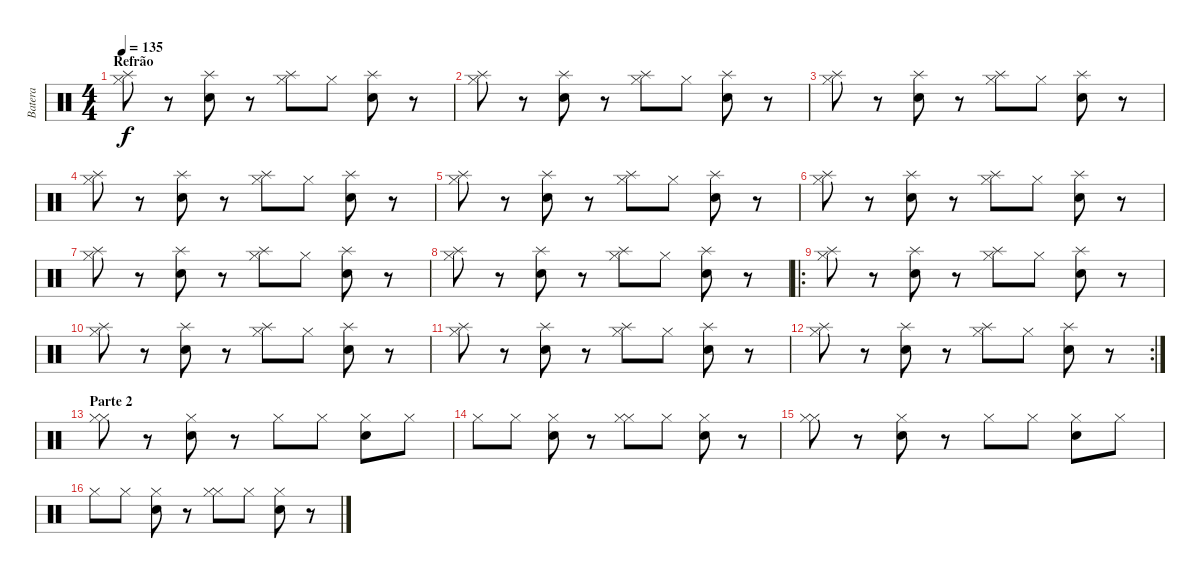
\track ("Batera" "Batera") {instrument percussion}
\staff {score}
\articulation defaults
\ts (4 4)
\section ("" "Refrão")
\tempo 135
\clef neutral
\ks c
("Splash (hit)" "Hi-Hat (closed)").8{dy f} r.8 ("Splash (hit)" "Electric Snare (hit)").8 r.8 ("Splash (hit)" "Hi-Hat (closed)").8 "Hi-Hat (closed)".8 ("Splash (hit)" "Electric Snare (hit)").8 r.8 |
("Splash (hit)" "Hi-Hat (closed)").8 r.8 ("Splash (hit)" "Electric Snare (hit)").8 r.8 ("Splash (hit)" "Hi-Hat (closed)").8 "Hi-Hat (closed)".8 ("Splash (hit)" "Electric Snare (hit)").8 r.8 |
("Splash (hit)" "Hi-Hat (closed)").8 r.8 ("Splash (hit)" "Electric Snare (hit)").8 r.8 ("Splash (hit)" "Hi-Hat (closed)").8 "Hi-Hat (closed)".8 ("Splash (hit)" "Electric Snare (hit)").8 r.8 |
("Splash (hit)" "Hi-Hat (closed)").8 r.8 ("Splash (hit)" "Electric Snare (hit)").8 r.8 ("Splash (hit)" "Hi-Hat (closed)").8 "Hi-Hat (closed)".8 ("Splash (hit)" "Electric Snare (hit)").8 r.8 |
("Splash (hit)" "Hi-Hat (closed)").8 r.8 ("Splash (hit)" "Electric Snare (hit)").8 r.8 ("Splash (hit)" "Hi-Hat (closed)").8 "Hi-Hat (closed)".8 ("Splash (hit)" "Electric Snare (hit)").8 r.8 |
("Splash (hit)" "Hi-Hat (closed)").8 r.8 ("Splash (hit)" "Electric Snare (hit)").8 r.8 ("Splash (hit)" "Hi-Hat (closed)").8 "Hi-Hat (closed)".8 ("Splash (hit)" "Electric Snare (hit)").8 r.8 |
("Splash (hit)" "Hi-Hat (closed)").8 r.8 ("Splash (hit)" "Electric Snare (hit)").8 r.8 ("Splash (hit)" "Hi-Hat (closed)").8 "Hi-Hat (closed)".8 ("Splash (hit)" "Electric Snare (hit)").8 r.8 |
("Splash (hit)" "Hi-Hat (closed)").8 r.8 ("Splash (hit)" "Electric Snare (hit)").8 r.8 ("Splash (hit)" "Hi-Hat (closed)").8 "Hi-Hat (closed)".8 ("Splash (hit)" "Electric Snare (hit)").8 r.8 |
\ro
("Splash (hit)" "Hi-Hat (closed)").8 r.8 ("Splash (hit)" "Electric Snare (hit)").8 r.8 ("Splash (hit)" "Hi-Hat (closed)").8 "Hi-Hat (closed)".8 ("Splash (hit)" "Electric Snare (hit)").8 r.8 |
("Splash (hit)" "Hi-Hat (closed)").8 r.8 ("Splash (hit)" "Electric Snare (hit)").8 r.8 ("Splash (hit)" "Hi-Hat (closed)").8 "Hi-Hat (closed)".8 ("Splash (hit)" "Electric Snare (hit)").8 r.8 |
("Splash (hit)" "Hi-Hat (closed)").8 r.8 ("Splash (hit)" "Electric Snare (hit)").8 r.8 ("Splash (hit)" "Hi-Hat (closed)").8 "Hi-Hat (closed)".8 ("Splash (hit)" "Electric Snare (hit)").8 r.8 |
\rc 2
("Splash (hit)" "Hi-Hat (closed)").8 r.8 ("Splash (hit)" "Electric Snare (hit)").8 r.8 ("Splash (hit)" "Hi-Hat (closed)").8 "Hi-Hat (closed)".8 ("Splash (hit)" "Electric Snare (hit)").8 r.8 |
\section ("" "Parte 2")
("Hi-Hat (closed)" "Hi-Hat (closed)").8 r.8 ("Hi-Hat (closed)" "Electric Snare (hit)").8 r.8 "Hi-Hat (closed)".8 "Hi-Hat (closed)".8 ("Hi-Hat (closed)" "Electric Snare (hit)").8 "Hi-Hat (closed)".8 |
"Hi-Hat (closed)".8 "Hi-Hat (closed)".8 ("Hi-Hat (closed)" "Electric Snare (hit)").8 r.8 ("Hi-Hat (closed)" "Hi-Hat (closed)").8 "Hi-Hat (closed)".8 ("Hi-Hat (closed)" "Electric Snare (hit)").8 r.8 |
("Hi-Hat (closed)" "Hi-Hat (closed)").8 r.8 ("Hi-Hat (closed)" "Electric Snare (hit)").8 r.8 "Hi-Hat (closed)".8 "Hi-Hat (closed)".8 ("Hi-Hat (closed)" "Electric Snare (hit)").8 "Hi-Hat (closed)".8 |
"Hi-Hat (closed)".8 "Hi-Hat (closed)".8 ("Hi-Hat (closed)" "Electric Snare (hit)").8 r.8 ("Hi-Hat (closed)" "Hi-Hat (closed)").8 "Hi-Hat (closed)".8 ("Hi-Hat (closed)" "Electric Snare (hit)").8 r.8
